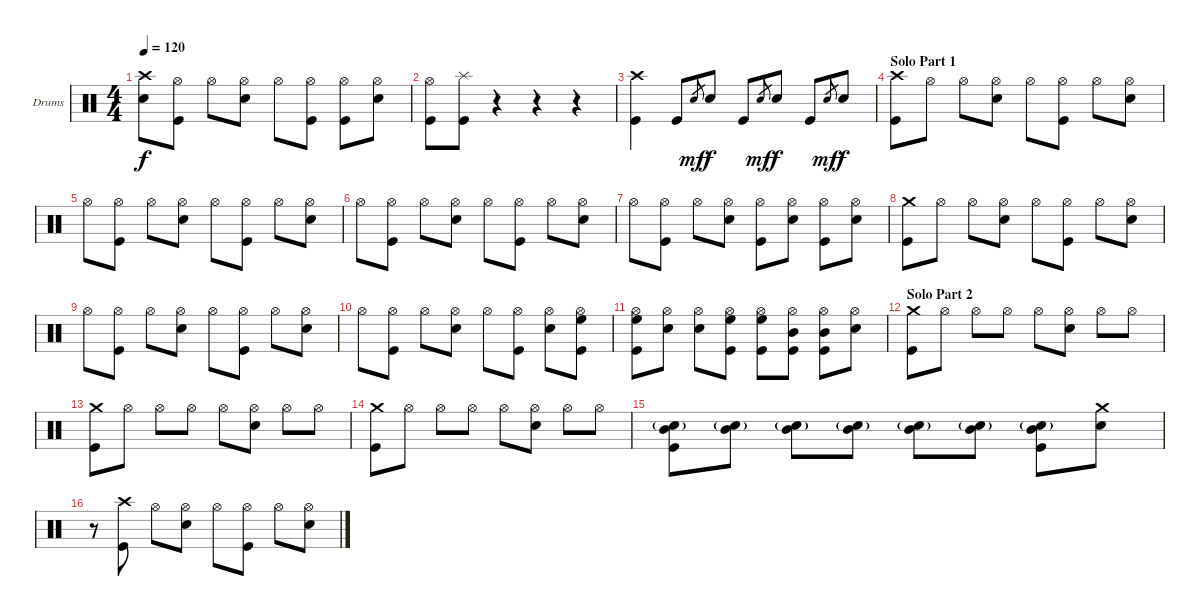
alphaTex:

\bracketExtendMode groupsimilarinstruments
\firstSystemTrackNameOrientation horizontal
\otherSystemsTrackNameOrientation horizontal
\track ("Drumkit" "Drums") {instrument percussion}
\staff {score}
\articulation defaults
\ts (4 4)
\tempo 120
\clef neutral
\ks c
("Crash high (hit)" "Snare (hit) 2").8{dy f} ("Hi-Hat (open)" "Kick (hit)").8 "Hi-Hat (open)".8 ("Hi-Hat (open)" "Snare (hit) 2").8 "Hi-Hat (open)".8 ("Hi-Hat (open)" "Kick (hit)").8 ("Hi-Hat (open)" "Kick (hit)").8 ("Hi-Hat (open)" "Snare (hit) 2").8 |
("Hi-Hat (open)" "Kick (hit)").8 ("Splash (hit)" "Kick (hit)").8 r.4 r.4 r.4 |
("Crash high (hit)" "Kick (hit)").4 "Kick (hit)".8 "Snare (hit) 2".8{gr dy mf} "Snare (hit) 2".8{dy f} "Kick (hit)".8 "Snare (hit) 2".8{gr dy mf} "Snare (hit) 2".8{dy f} "Kick (hit)".8 "Snare (hit) 2".8{gr dy mf} "Snare (hit) 2".8{dy f} |
\section ("" "Solo Part 1")
("Crash high (hit)" "Kick (hit)").8 "Hi-Hat (open)".8 "Hi-Hat (open)".8 ("Hi-Hat (open)" "Snare (hit) 2").8 "Hi-Hat (open)".8 ("Hi-Hat (open)" "Kick (hit)").8 "Hi-Hat (open)".8 ("Hi-Hat (open)" "Snare (hit) 2").8 |
"Hi-Hat (open)".8 ("Hi-Hat (open)" "Kick (hit)").8 "Hi-Hat (open)".8 ("Hi-Hat (open)" "Snare (hit) 2").8 "Hi-Hat (open)".8 ("Hi-Hat (open)" "Kick (hit)").8 "Hi-Hat (open)".8 ("Hi-Hat (open)" "Snare (hit) 2").8 |
"Hi-Hat (open)".8 ("Hi-Hat (open)" "Kick (hit)").8 "Hi-Hat (open)".8 ("Hi-Hat (open)" "Snare (hit) 2").8 "Hi-Hat (open)".8 ("Hi-Hat (open)" "Kick (hit)").8 "Hi-Hat (open)".8 ("Hi-Hat (open)" "Snare (hit) 2").8 |
"Hi-Hat (open)".8 ("Hi-Hat (open)" "Kick (hit)").8 "Hi-Hat (open)".8 ("Hi-Hat (open)" "Snare (hit) 2").8 ("Hi-Hat (open)" "Kick (hit)").8 ("Hi-Hat (open)" "Snare (hit) 2").8 ("Hi-Hat (open)" "Kick (hit)").8 ("Hi-Hat (open)" "Snare (hit) 2").8 |
("Crash medium (hit)" "Kick (hit)").8 "Hi-Hat (open)".8 "Hi-Hat (open)".8 ("Hi-Hat (open)" "Snare (hit) 2").8 "Hi-Hat (open)".8 ("Hi-Hat (open)" "Kick (hit)").8 "Hi-Hat (open)".8 ("Hi-Hat (open)" "Snare (hit) 2").8 |
"Hi-Hat (open)".8 ("Hi-Hat (open)" "Kick (hit)").8 "Hi-Hat (open)".8 ("Hi-Hat (open)" "Snare (hit) 2").8 "Hi-Hat (open)".8 ("Hi-Hat (open)" "Kick (hit)").8 "Hi-Hat (open)".8 ("Hi-Hat (open)" "Snare (hit) 2").8 |
"Hi-Hat (open)".8 ("Hi-Hat (open)" "Kick (hit)").8 "Hi-Hat (open)".8 ("Hi-Hat (open)" "Snare (hit) 2").8 "Hi-Hat (open)".8 ("Hi-Hat (open)" "Kick (hit)").8 ("Hi-Hat (open)" "Snare (hit) 2").8 ("Hi-Hat (open)" "High Floor Tom (hit)" "Kick (hit)").8 |
("Hi-Hat (open)" "High Floor Tom (hit)" "Kick (hit)").8 ("Hi-Hat (open)" "Snare (hit) 2").8 ("Hi-Hat (open)" "Snare (hit) 2").8 ("Hi-Hat (open)" "High Floor Tom (hit)" "Kick (hit)").8 ("Hi-Hat (open)" "High Floor Tom (hit)" "Kick (hit)").8 ("Hi-Hat (open)" "Mid Tom (hit)" "Kick (hit)").8 ("Hi-Hat (open)" "Mid Tom (hit)" "Kick (hit)").8 ("Hi-Hat (open)" "Snare (hit) 2").8 |
\section ("" "Solo Part 2")
("Crash medium (hit)" "Kick (hit)").8 "Hi-Hat (open)".8 "Hi-Hat (open)".8 "Hi-Hat (open)".8 "Hi-Hat (open)".8 ("Hi-Hat (open)" "Snare (hit) 2").8 "Hi-Hat (open)".8 "Hi-Hat (open)".8 |
("Crash medium (hit)" "Kick (hit)").8 "Hi-Hat (open)".8 "Hi-Hat (open)".8 "Hi-Hat (open)".8 "Hi-Hat (open)".8 ("Hi-Hat (open)" "Snare (hit) 2").8 "Hi-Hat (open)".8 "Hi-Hat (open)".8 |
("Crash medium (hit)" "Kick (hit)").8 "Hi-Hat (open)".8 "Hi-Hat (open)".8 "Hi-Hat (open)".8 "Hi-Hat (open)".8 ("Hi-Hat (open)" "Snare (hit) 2").8 "Hi-Hat (open)".8 "Hi-Hat (open)".8 |
("Snare (hit) 2"{g} "Mid Tom (hit)" "Kick (hit)").8 ("Snare (hit) 2"{g} "Mid Tom (hit)").8 ("Snare (hit) 2"{g} "Mid Tom (hit)").8 ("Snare (hit) 2"{g} "Mid Tom (hit)").8 ("Snare (hit) 2"{g} "Mid Tom (hit)").8 ("Snare (hit) 2"{g} "Mid Tom (hit)").8 ("Snare (hit) 2"{g} "Mid Tom (hit)" "Kick (hit)").8 ("Crash medium (hit)" "Snare (hit) 2").8 |
r.8 ("Crash high (hit)" "Kick (hit)").8 "Hi-Hat (open)".8 ("Hi-Hat (open)" "Snare (hit) 2").8 "Hi-Hat (open)".8 ("Hi-Hat (open)" "Kick (hit)").8 "Hi-Hat (open)".8 ("Hi-Hat (open)" "Snare (hit) 2").8
